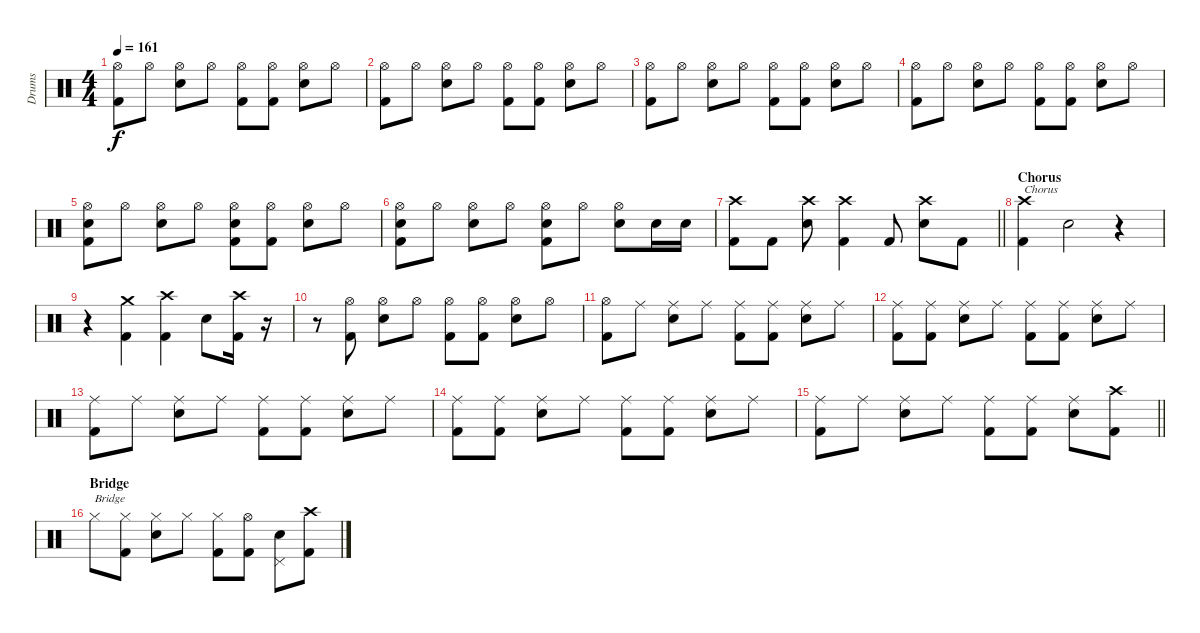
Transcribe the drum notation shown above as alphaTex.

\track ("Drums" "Drums") {instrument percussion}
\staff {score}
\articulation defaults
\ts (4 4)
\tempo 161
\clef neutral
\ks c
("Hi-Hat (open)" "Kick (hit) 2").8{dy f} "Hi-Hat (open)".8 ("Hi-Hat (open)" "Electric Snare (hit)").8 "Hi-Hat (open)".8 ("Hi-Hat (open)" "Kick (hit) 2").8 ("Hi-Hat (open)" "Kick (hit) 2").8 ("Hi-Hat (open)" "Electric Snare (hit)").8 "Hi-Hat (open)".8 |
("Hi-Hat (open)" "Kick (hit) 2").8 "Hi-Hat (open)".8 ("Hi-Hat (open)" "Electric Snare (hit)").8 "Hi-Hat (open)".8 ("Hi-Hat (open)" "Kick (hit) 2").8 ("Hi-Hat (open)" "Kick (hit) 2").8 ("Hi-Hat (open)" "Electric Snare (hit)").8 "Hi-Hat (open)".8 |
("Hi-Hat (open)" "Kick (hit) 2").8 "Hi-Hat (open)".8 ("Hi-Hat (open)" "Electric Snare (hit)").8 "Hi-Hat (open)".8 ("Hi-Hat (open)" "Kick (hit) 2").8 ("Hi-Hat (open)" "Kick (hit) 2").8 ("Hi-Hat (open)" "Electric Snare (hit)").8 "Hi-Hat (open)".8 |
("Hi-Hat (open)" "Kick (hit) 2").8 "Hi-Hat (open)".8 ("Hi-Hat (open)" "Electric Snare (hit)").8 "Hi-Hat (open)".8 ("Hi-Hat (open)" "Kick (hit) 2").8 ("Hi-Hat (open)" "Kick (hit) 2").8 ("Hi-Hat (open)" "Electric Snare (hit)").8 "Hi-Hat (open)".8 |
("Hi-Hat (open)" "Electric Snare (hit)" "Kick (hit) 2").8 "Hi-Hat (open)".8 ("Hi-Hat (open)" "Electric Snare (hit)").8 "Hi-Hat (open)".8 ("Hi-Hat (open)" "Electric Snare (hit)" "Kick (hit) 2").8 ("Hi-Hat (open)" "Kick (hit) 2").8 ("Hi-Hat (open)" "Electric Snare (hit)").8 "Hi-Hat (open)".8 |
("Hi-Hat (open)" "Electric Snare (hit)" "Kick (hit) 2").8 "Hi-Hat (open)".8 ("Hi-Hat (open)" "Electric Snare (hit)").8 "Hi-Hat (open)".8 ("Hi-Hat (open)" "Electric Snare (hit)" "Kick (hit) 2").8 "Hi-Hat (open)".8 ("Hi-Hat (open)" "Electric Snare (hit)").8 "Electric Snare (hit)".16 "Electric Snare (hit)".16 |
\barLineRight lightlight
("Crash high (hit)" "Kick (hit) 2").8 "Kick (hit) 2".8 ("Crash high (hit)" "Electric Snare (hit)").8 ("Crash high (hit)" "Kick (hit) 2").4 "Kick (hit) 2".8 ("Crash high (hit)" "Electric Snare (hit)").8 "Kick (hit) 2".8 |
\section ("" "Chorus")
("Crash high (hit)" "Kick (hit) 2").4{txt "Chorus"} "Electric Snare (hit)".2 r.4 |
r.4 ("Crash medium (hit)" "Kick (hit) 2").4 ("Crash high (hit)" "Kick (hit) 2").4 "Electric Snare (hit)".8 ("Crash high (hit)" "Kick (hit) 2").16 r.16 |
r.8 ("Hi-Hat (open)" "Kick (hit) 2").8 ("Hi-Hat (open)" "Electric Snare (hit)").8 "Hi-Hat (open)".8 ("Hi-Hat (open)" "Kick (hit) 2").8 ("Hi-Hat (open)" "Kick (hit) 2").8 ("Hi-Hat (open)" "Electric Snare (hit)").8 "Hi-Hat (open)".8 |
("Hi-Hat (open)" "Kick (hit) 2").8 "Ride (middle)".8 ("Ride (middle)" "Electric Snare (hit)").8 "Ride (middle)".8 ("Ride (middle)" "Kick (hit) 2").8 ("Ride (middle)" "Kick (hit) 2").8 ("Ride (middle)" "Electric Snare (hit)").8 "Ride (middle)".8 |
("Ride (middle)" "Kick (hit) 2").8 ("Ride (middle)" "Kick (hit) 2").8 ("Ride (middle)" "Electric Snare (hit)").8 "Ride (middle)".8 ("Ride (middle)" "Kick (hit) 2").8 ("Ride (middle)" "Kick (hit) 2").8 ("Ride (middle)" "Electric Snare (hit)").8 "Ride (middle)".8 |
("Ride (middle)" "Kick (hit) 2").8 "Ride (middle)".8 ("Ride (middle)" "Electric Snare (hit)").8 "Ride (middle)".8 ("Ride (middle)" "Kick (hit) 2").8 ("Ride (middle)" "Kick (hit) 2").8 ("Ride (middle)" "Electric Snare (hit)").8 "Ride (middle)".8 |
("Ride (middle)" "Kick (hit) 2").8 ("Ride (middle)" "Kick (hit) 2").8 ("Ride (middle)" "Electric Snare (hit)").8 "Ride (middle)".8 ("Ride (middle)" "Kick (hit) 2").8 ("Ride (middle)" "Kick (hit) 2").8 ("Ride (middle)" "Electric Snare (hit)").8 "Ride (middle)".8 |
\barLineRight lightlight
("Ride (middle)" "Kick (hit) 2").8 "Ride (middle)".8 ("Ride (middle)" "Electric Snare (hit)").8 "Ride (middle)".8 ("Ride (middle)" "Kick (hit) 2").8 ("Ride (middle)" "Kick (hit) 2").8 ("Ride (middle)" "Electric Snare (hit)").8 ("Crash high (hit)" "Kick (hit) 2").8 |
\section ("" "Bridge")
"Hi-Hat (closed)".8{txt "Bridge"} ("Hi-Hat (closed)" "Kick (hit) 2").8 ("Hi-Hat (closed)" "Electric Snare (hit)").8 "Hi-Hat (closed)".8 ("Hi-Hat (closed)" "Kick (hit) 2").8 ("Hi-Hat (open)" "Kick (hit) 2").8 ("Pedal Hi-Hat (hit)" "Electric Snare (hit)").8 ("Crash high (hit)" "Kick (hit) 2").8
